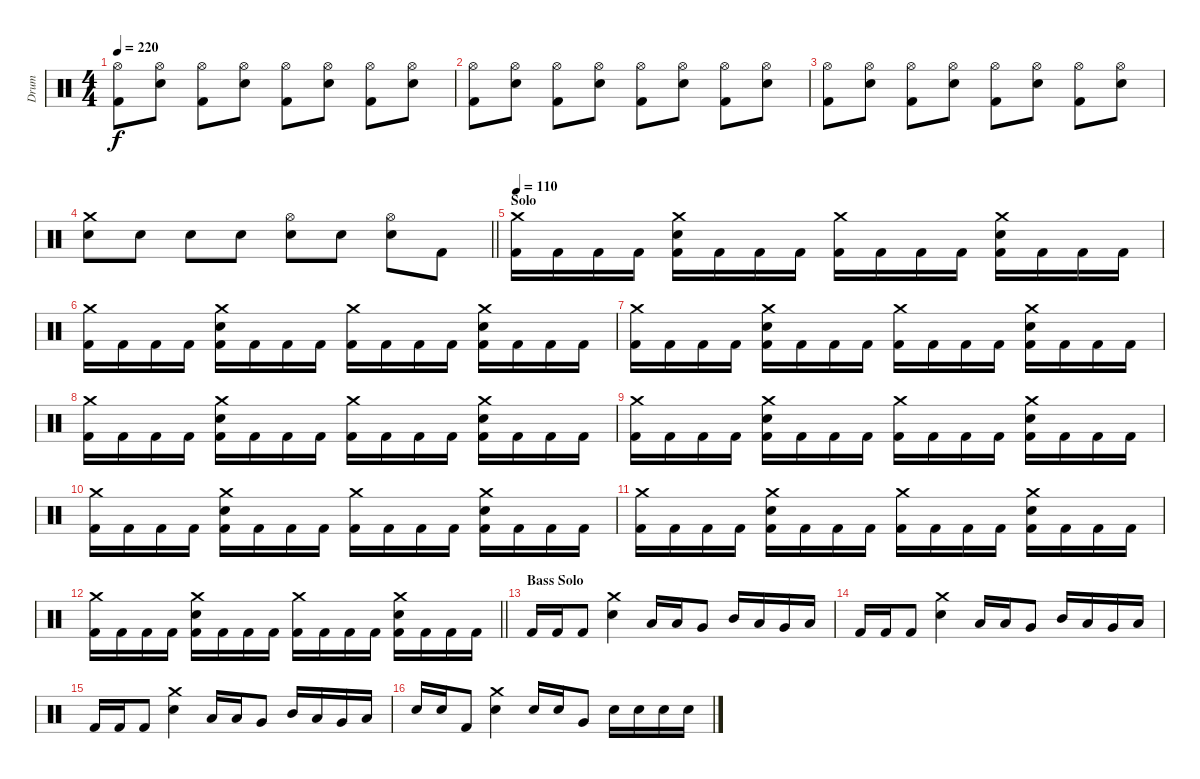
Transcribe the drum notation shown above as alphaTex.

\track ("Drum" "Drum") {instrument percussion}
\staff {score}
\articulation defaults
\ts (4 4)
\tempo 220
\clef neutral
\ks c
("Hi-Hat (open)" "Kick (hit) 2").8{dy f} ("Hi-Hat (open)" "Electric Snare (hit)").8 ("Hi-Hat (open)" "Kick (hit) 2").8 ("Hi-Hat (open)" "Electric Snare (hit)").8 ("Hi-Hat (open)" "Kick (hit) 2").8 ("Hi-Hat (open)" "Electric Snare (hit)").8 ("Hi-Hat (open)" "Kick (hit) 2").8 ("Hi-Hat (open)" "Electric Snare (hit)").8 |
("Hi-Hat (open)" "Kick (hit) 2").8 ("Hi-Hat (open)" "Electric Snare (hit)").8 ("Hi-Hat (open)" "Kick (hit) 2").8 ("Hi-Hat (open)" "Electric Snare (hit)").8 ("Hi-Hat (open)" "Kick (hit) 2").8 ("Hi-Hat (open)" "Electric Snare (hit)").8 ("Hi-Hat (open)" "Kick (hit) 2").8 ("Hi-Hat (open)" "Electric Snare (hit)").8 |
("Hi-Hat (open)" "Kick (hit) 2").8 ("Hi-Hat (open)" "Electric Snare (hit)").8 ("Hi-Hat (open)" "Kick (hit) 2").8 ("Hi-Hat (open)" "Electric Snare (hit)").8 ("Hi-Hat (open)" "Kick (hit) 2").8 ("Hi-Hat (open)" "Electric Snare (hit)").8 ("Hi-Hat (open)" "Kick (hit) 2").8 ("Hi-Hat (open)" "Electric Snare (hit)").8 |
\barLineRight lightlight
("Crash medium (hit)" "Electric Snare (hit)").8 "Electric Snare (hit)".8 "Electric Snare (hit)".8 "Electric Snare (hit)".8 ("Hi-Hat (open)" "Electric Snare (hit)").8 "Electric Snare (hit)".8 ("Hi-Hat (open)" "Electric Snare (hit)").8 "Kick (hit) 2".8 |
\section ("" "Solo")
\tempo 110
("Crash medium (hit)" "Kick (hit) 2").16 "Kick (hit) 2".16 "Kick (hit) 2".16 "Kick (hit) 2".16 ("Crash medium (hit)" "Electric Snare (hit)" "Kick (hit) 2").16 "Kick (hit) 2".16 "Kick (hit) 2".16 "Kick (hit) 2".16 ("Crash medium (hit)" "Kick (hit) 2").16 "Kick (hit) 2".16 "Kick (hit) 2".16 "Kick (hit) 2".16 ("Crash medium (hit)" "Electric Snare (hit)" "Kick (hit) 2").16 "Kick (hit) 2".16 "Kick (hit) 2".16 "Kick (hit) 2".16 |
("Crash medium (hit)" "Kick (hit) 2").16 "Kick (hit) 2".16 "Kick (hit) 2".16 "Kick (hit) 2".16 ("Crash medium (hit)" "Electric Snare (hit)" "Kick (hit) 2").16 "Kick (hit) 2".16 "Kick (hit) 2".16 "Kick (hit) 2".16 ("Crash medium (hit)" "Kick (hit) 2").16 "Kick (hit) 2".16 "Kick (hit) 2".16 "Kick (hit) 2".16 ("Crash medium (hit)" "Electric Snare (hit)" "Kick (hit) 2").16 "Kick (hit) 2".16 "Kick (hit) 2".16 "Kick (hit) 2".16 |
("Crash medium (hit)" "Kick (hit) 2").16 "Kick (hit) 2".16 "Kick (hit) 2".16 "Kick (hit) 2".16 ("Crash medium (hit)" "Electric Snare (hit)" "Kick (hit) 2").16 "Kick (hit) 2".16 "Kick (hit) 2".16 "Kick (hit) 2".16 ("Crash medium (hit)" "Kick (hit) 2").16 "Kick (hit) 2".16 "Kick (hit) 2".16 "Kick (hit) 2".16 ("Crash medium (hit)" "Electric Snare (hit)" "Kick (hit) 2").16 "Kick (hit) 2".16 "Kick (hit) 2".16 "Kick (hit) 2".16 |
("Crash medium (hit)" "Kick (hit) 2").16 "Kick (hit) 2".16 "Kick (hit) 2".16 "Kick (hit) 2".16 ("Crash medium (hit)" "Electric Snare (hit)" "Kick (hit) 2").16 "Kick (hit) 2".16 "Kick (hit) 2".16 "Kick (hit) 2".16 ("Crash medium (hit)" "Kick (hit) 2").16 "Kick (hit) 2".16 "Kick (hit) 2".16 "Kick (hit) 2".16 ("Crash medium (hit)" "Electric Snare (hit)" "Kick (hit) 2").16 "Kick (hit) 2".16 "Kick (hit) 2".16 "Kick (hit) 2".16 |
("Crash medium (hit)" "Kick (hit) 2").16 "Kick (hit) 2".16 "Kick (hit) 2".16 "Kick (hit) 2".16 ("Crash medium (hit)" "Electric Snare (hit)" "Kick (hit) 2").16 "Kick (hit) 2".16 "Kick (hit) 2".16 "Kick (hit) 2".16 ("Crash medium (hit)" "Kick (hit) 2").16 "Kick (hit) 2".16 "Kick (hit) 2".16 "Kick (hit) 2".16 ("Crash medium (hit)" "Electric Snare (hit)" "Kick (hit) 2").16 "Kick (hit) 2".16 "Kick (hit) 2".16 "Kick (hit) 2".16 |
("Crash medium (hit)" "Kick (hit) 2").16 "Kick (hit) 2".16 "Kick (hit) 2".16 "Kick (hit) 2".16 ("Crash medium (hit)" "Electric Snare (hit)" "Kick (hit) 2").16 "Kick (hit) 2".16 "Kick (hit) 2".16 "Kick (hit) 2".16 ("Crash medium (hit)" "Kick (hit) 2").16 "Kick (hit) 2".16 "Kick (hit) 2".16 "Kick (hit) 2".16 ("Crash medium (hit)" "Electric Snare (hit)" "Kick (hit) 2").16 "Kick (hit) 2".16 "Kick (hit) 2".16 "Kick (hit) 2".16 |
("Crash medium (hit)" "Kick (hit) 2").16 "Kick (hit) 2".16 "Kick (hit) 2".16 "Kick (hit) 2".16 ("Crash medium (hit)" "Electric Snare (hit)" "Kick (hit) 2").16 "Kick (hit) 2".16 "Kick (hit) 2".16 "Kick (hit) 2".16 ("Crash medium (hit)" "Kick (hit) 2").16 "Kick (hit) 2".16 "Kick (hit) 2".16 "Kick (hit) 2".16 ("Crash medium (hit)" "Electric Snare (hit)" "Kick (hit) 2").16 "Kick (hit) 2".16 "Kick (hit) 2".16 "Kick (hit) 2".16 |
\barLineRight lightlight
("Crash medium (hit)" "Kick (hit) 2").16 "Kick (hit) 2".16 "Kick (hit) 2".16 "Kick (hit) 2".16 ("Crash medium (hit)" "Electric Snare (hit)" "Kick (hit) 2").16 "Kick (hit) 2".16 "Kick (hit) 2".16 "Kick (hit) 2".16 ("Crash medium (hit)" "Kick (hit) 2").16 "Kick (hit) 2".16 "Kick (hit) 2".16 "Kick (hit) 2".16 ("Crash medium (hit)" "Electric Snare (hit)" "Kick (hit) 2").16 "Kick (hit) 2".16 "Kick (hit) 2".16 "Kick (hit) 2".16 |
\section ("" "Bass Solo")
"Kick (hit) 2".16 "Kick (hit) 2".16 "Kick (hit) 2".8 ("Crash medium (hit)" "Electric Snare (hit)").4 "Low Floor Tom (hit)".16 "Low Floor Tom (hit)".16 "Very Low Tom (hit)".8 "Mid Tom (hit)".16 "Low Tom (hit)".16 "Very Low Tom (hit)".16 "Low Floor Tom (hit)".16 |
"Kick (hit) 2".16 "Kick (hit) 2".16 "Kick (hit) 2".8 ("Crash medium (hit)" "Electric Snare (hit)").4 "Low Floor Tom (hit)".16 "Low Floor Tom (hit)".16 "Very Low Tom (hit)".8 "Mid Tom (hit)".16 "Low Tom (hit)".16 "Very Low Tom (hit)".16 "Low Floor Tom (hit)".16 |
"Kick (hit) 2".16 "Kick (hit) 2".16 "Kick (hit) 2".8 ("Crash medium (hit)" "Electric Snare (hit)").4 "Low Floor Tom (hit)".16 "Low Floor Tom (hit)".16 "Very Low Tom (hit)".8 "Mid Tom (hit)".16 "Low Tom (hit)".16 "Very Low Tom (hit)".16 "Low Floor Tom (hit)".16 |
"Electric Snare (hit)".16 "Electric Snare (hit)".16 "Kick (hit) 2".8 ("Crash medium (hit)" "Electric Snare (hit)").4 "Electric Snare (hit)".16 "Electric Snare (hit)".16 "Very Low Tom (hit)".8 "Electric Snare (hit)".16 "Electric Snare (hit)".16 "Electric Snare (hit)".16 "Electric Snare (hit)".16
